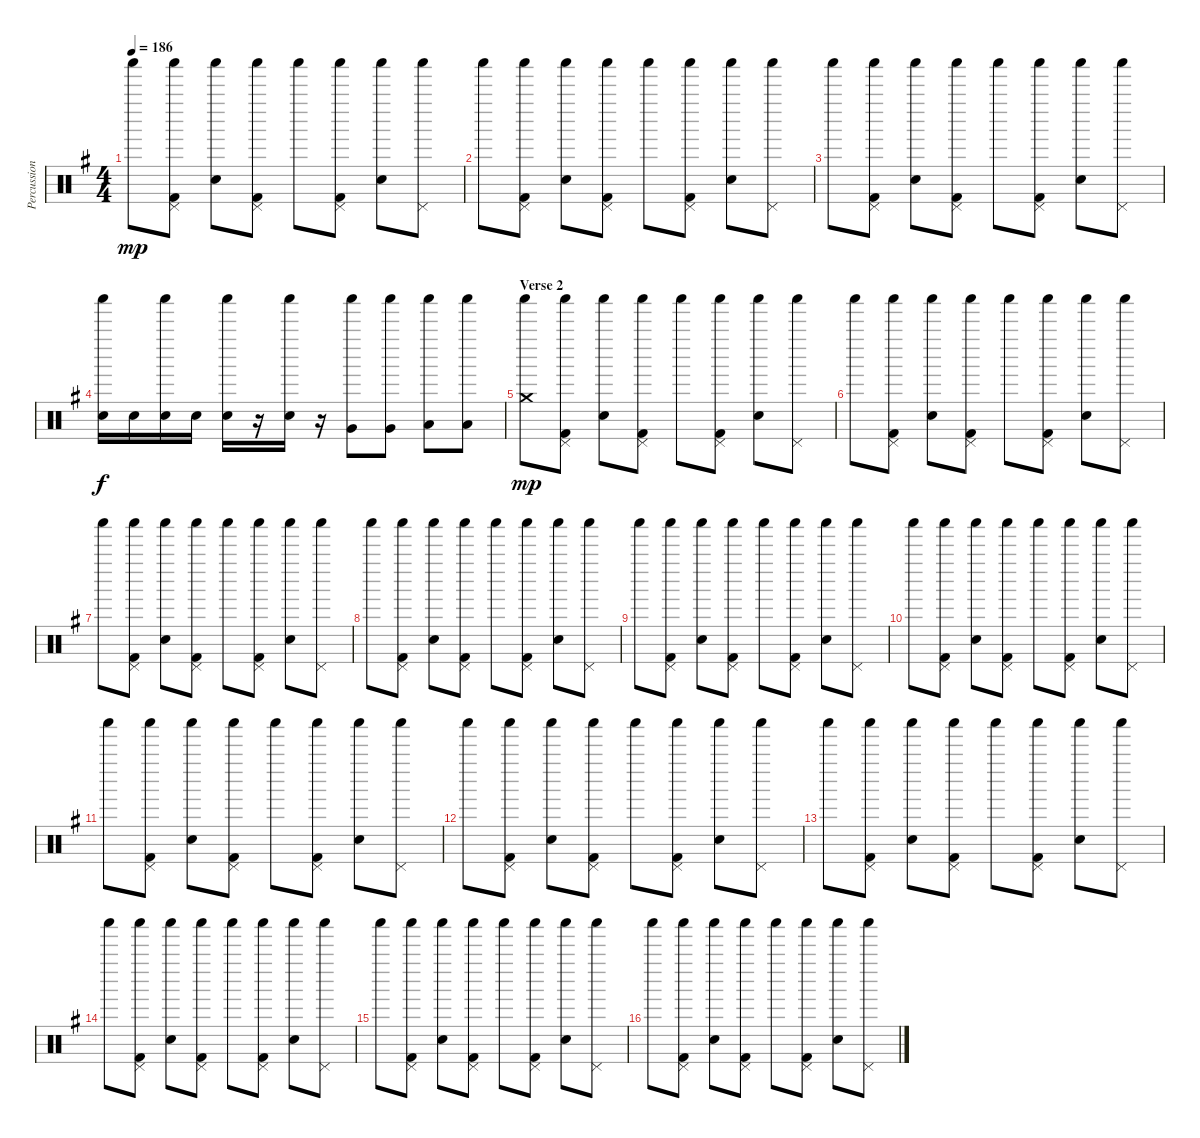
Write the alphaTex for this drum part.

\track ("Percussion" "Percussion") {instrument percussion}
\staff {score}
\articulation defaults
\ts (4 4)
\tempo 186
\clef neutral
\ks g "Shaker (hit)".8{dy mp}
("Shaker (hit)" "Pedal Hi-Hat (hit)" "Kick (hit) 2").8 ("Shaker (hit)" "Electric Snare (hit)").8 ("Shaker (hit)" "Pedal Hi-Hat (hit)" "Kick (hit) 2").8 "Shaker (hit)".8 ("Shaker (hit)" "Pedal Hi-Hat (hit)" "Kick (hit) 2").8 ("Shaker (hit)" "Electric Snare (hit)").8 ("Shaker (hit)" "Pedal Hi-Hat (hit)").8 |
"Shaker (hit)".8 ("Shaker (hit)" "Pedal Hi-Hat (hit)" "Kick (hit) 2").8 ("Shaker (hit)" "Electric Snare (hit)").8 ("Shaker (hit)" "Pedal Hi-Hat (hit)" "Kick (hit) 2").8 "Shaker (hit)".8 ("Shaker (hit)" "Pedal Hi-Hat (hit)" "Kick (hit) 2").8 ("Shaker (hit)" "Electric Snare (hit)").8 ("Shaker (hit)" "Pedal Hi-Hat (hit)").8 |
"Shaker (hit)".8 ("Shaker (hit)" "Pedal Hi-Hat (hit)" "Kick (hit) 2").8 ("Shaker (hit)" "Electric Snare (hit)").8 ("Shaker (hit)" "Pedal Hi-Hat (hit)" "Kick (hit) 2").8 "Shaker (hit)".8 ("Shaker (hit)" "Pedal Hi-Hat (hit)" "Kick (hit) 2").8 ("Shaker (hit)" "Electric Snare (hit)").8 ("Shaker (hit)" "Pedal Hi-Hat (hit)").8 |
("Shaker (hit)" "Electric Snare (hit)").16{dy f} "Electric Snare (hit)".16 ("Shaker (hit)" "Electric Snare (hit)").16 "Electric Snare (hit)".16 ("Shaker (hit)" "Electric Snare (hit)").16 r.16 ("Shaker (hit)" "Electric Snare (hit)").16 r.16 ("Shaker (hit)" "Very Low Tom (hit)").8 ("Shaker (hit)" "Very Low Tom (hit)").8 ("Shaker (hit)" "Low Floor Tom (hit)").8 ("Shaker (hit)" "Low Floor Tom (hit)").8 |
\section ("" "Verse 2")
("Shaker (hit)" "Crash medium (hit)").8{dy mp} ("Shaker (hit)" "Pedal Hi-Hat (hit)" "Kick (hit) 2").8 ("Shaker (hit)" "Electric Snare (hit)").8 ("Shaker (hit)" "Pedal Hi-Hat (hit)" "Kick (hit) 2").8 "Shaker (hit)".8 ("Shaker (hit)" "Pedal Hi-Hat (hit)" "Kick (hit) 2").8 ("Shaker (hit)" "Electric Snare (hit)").8 ("Shaker (hit)" "Pedal Hi-Hat (hit)").8 |
"Shaker (hit)".8 ("Shaker (hit)" "Pedal Hi-Hat (hit)" "Kick (hit) 2").8 ("Shaker (hit)" "Electric Snare (hit)").8 ("Shaker (hit)" "Pedal Hi-Hat (hit)" "Kick (hit) 2").8 "Shaker (hit)".8 ("Shaker (hit)" "Pedal Hi-Hat (hit)" "Kick (hit) 2").8 ("Shaker (hit)" "Electric Snare (hit)").8 ("Shaker (hit)" "Pedal Hi-Hat (hit)").8 |
"Shaker (hit)".8 ("Shaker (hit)" "Pedal Hi-Hat (hit)" "Kick (hit) 2").8 ("Shaker (hit)" "Electric Snare (hit)").8 ("Shaker (hit)" "Pedal Hi-Hat (hit)" "Kick (hit) 2").8 "Shaker (hit)".8 ("Shaker (hit)" "Pedal Hi-Hat (hit)" "Kick (hit) 2").8 ("Shaker (hit)" "Electric Snare (hit)").8 ("Shaker (hit)" "Pedal Hi-Hat (hit)").8 |
"Shaker (hit)".8 ("Shaker (hit)" "Pedal Hi-Hat (hit)" "Kick (hit) 2").8 ("Shaker (hit)" "Electric Snare (hit)").8 ("Shaker (hit)" "Pedal Hi-Hat (hit)" "Kick (hit) 2").8 "Shaker (hit)".8 ("Shaker (hit)" "Pedal Hi-Hat (hit)" "Kick (hit) 2").8 ("Shaker (hit)" "Electric Snare (hit)").8 ("Shaker (hit)" "Pedal Hi-Hat (hit)").8 |
"Shaker (hit)".8 ("Shaker (hit)" "Pedal Hi-Hat (hit)" "Kick (hit) 2").8 ("Shaker (hit)" "Electric Snare (hit)").8 ("Shaker (hit)" "Pedal Hi-Hat (hit)" "Kick (hit) 2").8 "Shaker (hit)".8 ("Shaker (hit)" "Pedal Hi-Hat (hit)" "Kick (hit) 2").8 ("Shaker (hit)" "Electric Snare (hit)").8 ("Shaker (hit)" "Pedal Hi-Hat (hit)").8 |
"Shaker (hit)".8 ("Shaker (hit)" "Pedal Hi-Hat (hit)" "Kick (hit) 2").8 ("Shaker (hit)" "Electric Snare (hit)").8 ("Shaker (hit)" "Pedal Hi-Hat (hit)" "Kick (hit) 2").8 "Shaker (hit)".8 ("Shaker (hit)" "Pedal Hi-Hat (hit)" "Kick (hit) 2").8 ("Shaker (hit)" "Electric Snare (hit)").8 ("Shaker (hit)" "Pedal Hi-Hat (hit)").8 |
"Shaker (hit)".8 ("Shaker (hit)" "Pedal Hi-Hat (hit)" "Kick (hit) 2").8 ("Shaker (hit)" "Electric Snare (hit)").8 ("Shaker (hit)" "Pedal Hi-Hat (hit)" "Kick (hit) 2").8 "Shaker (hit)".8 ("Shaker (hit)" "Pedal Hi-Hat (hit)" "Kick (hit) 2").8 ("Shaker (hit)" "Electric Snare (hit)").8 ("Shaker (hit)" "Pedal Hi-Hat (hit)").8 |
"Shaker (hit)".8 ("Shaker (hit)" "Pedal Hi-Hat (hit)" "Kick (hit) 2").8 ("Shaker (hit)" "Electric Snare (hit)").8 ("Shaker (hit)" "Pedal Hi-Hat (hit)" "Kick (hit) 2").8 "Shaker (hit)".8 ("Shaker (hit)" "Pedal Hi-Hat (hit)" "Kick (hit) 2").8 ("Shaker (hit)" "Electric Snare (hit)").8 ("Shaker (hit)" "Pedal Hi-Hat (hit)").8 |
"Shaker (hit)".8 ("Shaker (hit)" "Pedal Hi-Hat (hit)" "Kick (hit) 2").8 ("Shaker (hit)" "Electric Snare (hit)").8 ("Shaker (hit)" "Pedal Hi-Hat (hit)" "Kick (hit) 2").8 "Shaker (hit)".8 ("Shaker (hit)" "Pedal Hi-Hat (hit)" "Kick (hit) 2").8 ("Shaker (hit)" "Electric Snare (hit)").8 ("Shaker (hit)" "Pedal Hi-Hat (hit)").8 |
"Shaker (hit)".8 ("Shaker (hit)" "Pedal Hi-Hat (hit)" "Kick (hit) 2").8 ("Shaker (hit)" "Electric Snare (hit)").8 ("Shaker (hit)" "Pedal Hi-Hat (hit)" "Kick (hit) 2").8 "Shaker (hit)".8 ("Shaker (hit)" "Pedal Hi-Hat (hit)" "Kick (hit) 2").8 ("Shaker (hit)" "Electric Snare (hit)").8 ("Shaker (hit)" "Pedal Hi-Hat (hit)").8 |
"Shaker (hit)".8 ("Shaker (hit)" "Pedal Hi-Hat (hit)" "Kick (hit) 2").8 ("Shaker (hit)" "Electric Snare (hit)").8 ("Shaker (hit)" "Pedal Hi-Hat (hit)" "Kick (hit) 2").8 "Shaker (hit)".8 ("Shaker (hit)" "Pedal Hi-Hat (hit)" "Kick (hit) 2").8 ("Shaker (hit)" "Electric Snare (hit)").8 ("Shaker (hit)" "Pedal Hi-Hat (hit)").8 |
"Shaker (hit)".8 ("Shaker (hit)" "Pedal Hi-Hat (hit)" "Kick (hit) 2").8 ("Shaker (hit)" "Electric Snare (hit)").8 ("Shaker (hit)" "Pedal Hi-Hat (hit)" "Kick (hit) 2").8 "Shaker (hit)".8 ("Shaker (hit)" "Pedal Hi-Hat (hit)" "Kick (hit) 2").8 ("Shaker (hit)" "Electric Snare (hit)").8 ("Shaker (hit)" "Pedal Hi-Hat (hit)").8
